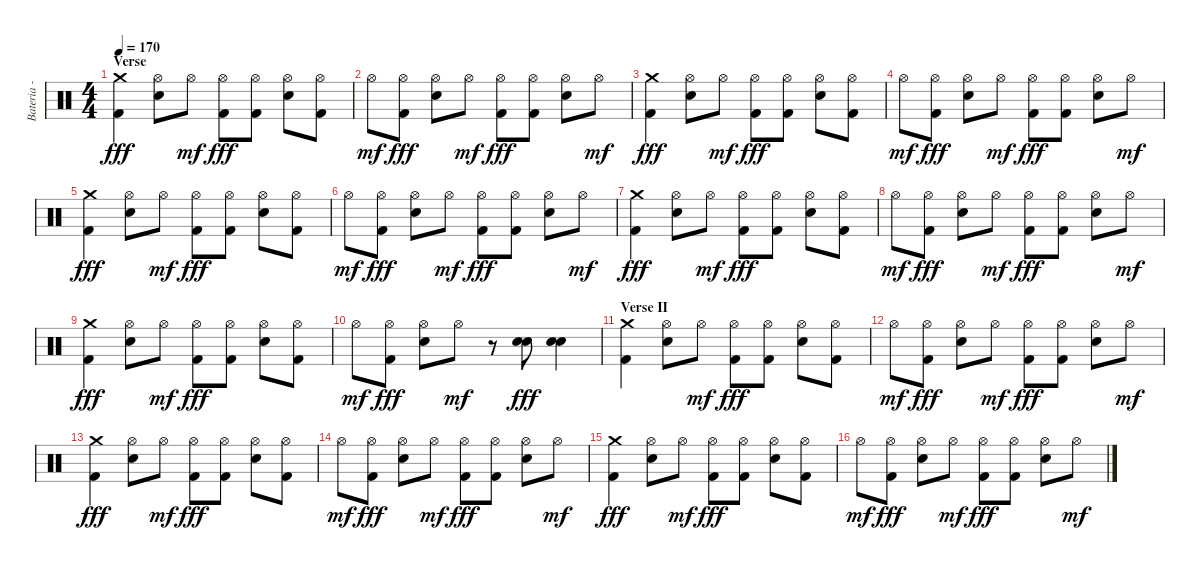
\track ("Bateria - Larzon" "Bateria - ") {instrument percussion}
\staff {score}
\articulation defaults
\ts (4 4)
\section ("" "Verse")
\tempo 170
\clef neutral
\ks c
("Crash medium (hit)" "Kick (hit) 2").4{dy fff} ("Hi-Hat (open)" "Snare (hit) 2").8 "Hi-Hat (open)".8{dy mf} ("Hi-Hat (open)" "Kick (hit) 2").8{dy fff} ("Hi-Hat (open)" "Kick (hit) 2").8 ("Hi-Hat (open)" "Snare (hit) 2").8 ("Hi-Hat (open)" "Kick (hit) 2").8 |
"Hi-Hat (open)".8{dy mf} ("Hi-Hat (open)" "Kick (hit) 2").8{dy fff} ("Hi-Hat (open)" "Snare (hit) 2").8 "Hi-Hat (open)".8{dy mf} ("Hi-Hat (open)" "Kick (hit) 2").8{dy fff} ("Hi-Hat (open)" "Kick (hit) 2").8 ("Hi-Hat (open)" "Snare (hit) 2").8 "Hi-Hat (open)".8{dy mf} |
("Crash medium (hit)" "Kick (hit) 2").4{dy fff} ("Hi-Hat (open)" "Snare (hit) 2").8 "Hi-Hat (open)".8{dy mf} ("Hi-Hat (open)" "Kick (hit) 2").8{dy fff} ("Hi-Hat (open)" "Kick (hit) 2").8 ("Hi-Hat (open)" "Snare (hit) 2").8 ("Hi-Hat (open)" "Kick (hit) 2").8 |
"Hi-Hat (open)".8{dy mf} ("Hi-Hat (open)" "Kick (hit) 2").8{dy fff} ("Hi-Hat (open)" "Snare (hit) 2").8 "Hi-Hat (open)".8{dy mf} ("Hi-Hat (open)" "Kick (hit) 2").8{dy fff} ("Hi-Hat (open)" "Kick (hit) 2").8 ("Hi-Hat (open)" "Snare (hit) 2").8 "Hi-Hat (open)".8{dy mf} |
("Crash medium (hit)" "Kick (hit) 2").4{dy fff} ("Hi-Hat (open)" "Snare (hit) 2").8 "Hi-Hat (open)".8{dy mf} ("Hi-Hat (open)" "Kick (hit) 2").8{dy fff} ("Hi-Hat (open)" "Kick (hit) 2").8 ("Hi-Hat (open)" "Snare (hit) 2").8 ("Hi-Hat (open)" "Kick (hit) 2").8 |
"Hi-Hat (open)".8{dy mf} ("Hi-Hat (open)" "Kick (hit) 2").8{dy fff} ("Hi-Hat (open)" "Snare (hit) 2").8 "Hi-Hat (open)".8{dy mf} ("Hi-Hat (open)" "Kick (hit) 2").8{dy fff} ("Hi-Hat (open)" "Kick (hit) 2").8 ("Hi-Hat (open)" "Snare (hit) 2").8 "Hi-Hat (open)".8{dy mf} |
("Crash medium (hit)" "Kick (hit) 2").4{dy fff} ("Hi-Hat (open)" "Snare (hit) 2").8 "Hi-Hat (open)".8{dy mf} ("Hi-Hat (open)" "Kick (hit) 2").8{dy fff} ("Hi-Hat (open)" "Kick (hit) 2").8 ("Hi-Hat (open)" "Snare (hit) 2").8 ("Hi-Hat (open)" "Kick (hit) 2").8 |
"Hi-Hat (open)".8{dy mf} ("Hi-Hat (open)" "Kick (hit) 2").8{dy fff} ("Hi-Hat (open)" "Snare (hit) 2").8 "Hi-Hat (open)".8{dy mf} ("Hi-Hat (open)" "Kick (hit) 2").8{dy fff} ("Hi-Hat (open)" "Kick (hit) 2").8 ("Hi-Hat (open)" "Snare (hit) 2").8 "Hi-Hat (open)".8{dy mf} |
("Crash medium (hit)" "Kick (hit) 2").4{dy fff} ("Hi-Hat (open)" "Snare (hit) 2").8 "Hi-Hat (open)".8{dy mf} ("Hi-Hat (open)" "Kick (hit) 2").8{dy fff} ("Hi-Hat (open)" "Kick (hit) 2").8 ("Hi-Hat (open)" "Snare (hit) 2").8 ("Hi-Hat (open)" "Kick (hit) 2").8 |
"Hi-Hat (open)".8{dy mf} ("Hi-Hat (open)" "Kick (hit) 2").8{dy fff} ("Hi-Hat (open)" "Snare (hit) 2").8 "Hi-Hat (open)".8{dy mf} r.8 ("Snare (hit) 2" "Electric Snare (hit)").8{dy fff volume 16} ("Snare (hit) 2" "Electric Snare (hit)").4 |
\section ("" "Verse II")
("Crash medium (hit)" "Kick (hit) 2").4{volume 13} ("Hi-Hat (open)" "Snare (hit) 2").8 "Hi-Hat (open)".8{dy mf} ("Hi-Hat (open)" "Kick (hit) 2").8{dy fff} ("Hi-Hat (open)" "Kick (hit) 2").8 ("Hi-Hat (open)" "Snare (hit) 2").8 ("Hi-Hat (open)" "Kick (hit) 2").8 |
"Hi-Hat (open)".8{dy mf} ("Hi-Hat (open)" "Kick (hit) 2").8{dy fff} ("Hi-Hat (open)" "Snare (hit) 2").8 "Hi-Hat (open)".8{dy mf} ("Hi-Hat (open)" "Kick (hit) 2").8{dy fff} ("Hi-Hat (open)" "Kick (hit) 2").8 ("Hi-Hat (open)" "Snare (hit) 2").8 "Hi-Hat (open)".8{dy mf} |
("Crash medium (hit)" "Kick (hit) 2").4{dy fff} ("Hi-Hat (open)" "Snare (hit) 2").8 "Hi-Hat (open)".8{dy mf} ("Hi-Hat (open)" "Kick (hit) 2").8{dy fff} ("Hi-Hat (open)" "Kick (hit) 2").8 ("Hi-Hat (open)" "Snare (hit) 2").8 ("Hi-Hat (open)" "Kick (hit) 2").8 |
"Hi-Hat (open)".8{dy mf} ("Hi-Hat (open)" "Kick (hit) 2").8{dy fff} ("Hi-Hat (open)" "Snare (hit) 2").8 "Hi-Hat (open)".8{dy mf} ("Hi-Hat (open)" "Kick (hit) 2").8{dy fff} ("Hi-Hat (open)" "Kick (hit) 2").8 ("Hi-Hat (open)" "Snare (hit) 2").8 "Hi-Hat (open)".8{dy mf} |
("Crash medium (hit)" "Kick (hit) 2").4{dy fff} ("Hi-Hat (open)" "Snare (hit) 2").8 "Hi-Hat (open)".8{dy mf} ("Hi-Hat (open)" "Kick (hit) 2").8{dy fff} ("Hi-Hat (open)" "Kick (hit) 2").8 ("Hi-Hat (open)" "Snare (hit) 2").8 ("Hi-Hat (open)" "Kick (hit) 2").8 |
"Hi-Hat (open)".8{dy mf} ("Hi-Hat (open)" "Kick (hit) 2").8{dy fff} ("Hi-Hat (open)" "Snare (hit) 2").8 "Hi-Hat (open)".8{dy mf} ("Hi-Hat (open)" "Kick (hit) 2").8{dy fff} ("Hi-Hat (open)" "Kick (hit) 2").8 ("Hi-Hat (open)" "Snare (hit) 2").8 "Hi-Hat (open)".8{dy mf}
